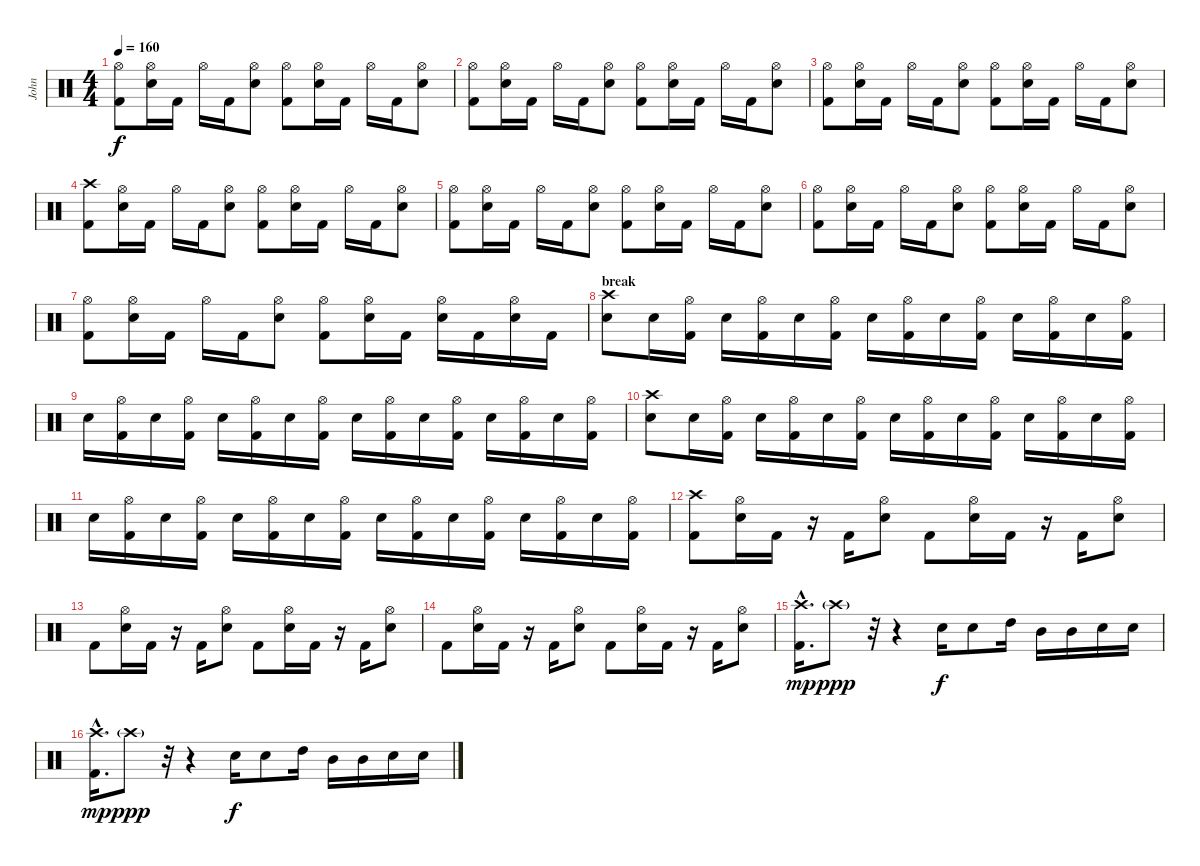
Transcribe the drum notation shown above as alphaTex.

\track ("John" "John") {instrument percussion}
\staff {score}
\articulation defaults
\ts (4 4)
\tempo 160
\clef neutral
\ks c
("Hi-Hat (open)" "Kick (hit) 2").8{dy f} ("Hi-Hat (open)" "Electric Snare (hit)").16 "Kick (hit) 2".16 "Hi-Hat (open)".16 "Kick (hit) 2".16 ("Hi-Hat (open)" "Electric Snare (hit)").8 ("Hi-Hat (open)" "Kick (hit) 2").8 ("Hi-Hat (open)" "Electric Snare (hit)").16 "Kick (hit) 2".16 "Hi-Hat (open)".16 "Kick (hit) 2".16 ("Hi-Hat (open)" "Electric Snare (hit)").8 |
("Hi-Hat (open)" "Kick (hit) 2").8 ("Hi-Hat (open)" "Electric Snare (hit)").16 "Kick (hit) 2".16 "Hi-Hat (open)".16 "Kick (hit) 2".16 ("Hi-Hat (open)" "Electric Snare (hit)").8 ("Hi-Hat (open)" "Kick (hit) 2").8 ("Hi-Hat (open)" "Electric Snare (hit)").16 "Kick (hit) 2".16 "Hi-Hat (open)".16 "Kick (hit) 2".16 ("Hi-Hat (open)" "Electric Snare (hit)").8 |
("Hi-Hat (open)" "Kick (hit) 2").8 ("Hi-Hat (open)" "Electric Snare (hit)").16 "Kick (hit) 2".16 "Hi-Hat (open)".16 "Kick (hit) 2".16 ("Hi-Hat (open)" "Electric Snare (hit)").8 ("Hi-Hat (open)" "Kick (hit) 2").8 ("Hi-Hat (open)" "Electric Snare (hit)").16 "Kick (hit) 2".16 "Hi-Hat (open)".16 "Kick (hit) 2".16 ("Hi-Hat (open)" "Electric Snare (hit)").8 |
("Crash high (hit)" "Kick (hit) 2").8 ("Hi-Hat (open)" "Electric Snare (hit)").16 "Kick (hit) 2".16 "Hi-Hat (open)".16 "Kick (hit) 2".16 ("Hi-Hat (open)" "Electric Snare (hit)").8 ("Hi-Hat (open)" "Kick (hit) 2").8 ("Hi-Hat (open)" "Electric Snare (hit)").16 "Kick (hit) 2".16 "Hi-Hat (open)".16 "Kick (hit) 2".16 ("Hi-Hat (open)" "Electric Snare (hit)").8 |
("Hi-Hat (open)" "Kick (hit) 2").8 ("Hi-Hat (open)" "Electric Snare (hit)").16 "Kick (hit) 2".16 "Hi-Hat (open)".16 "Kick (hit) 2".16 ("Hi-Hat (open)" "Electric Snare (hit)").8 ("Hi-Hat (open)" "Kick (hit) 2").8 ("Hi-Hat (open)" "Electric Snare (hit)").16 "Kick (hit) 2".16 "Hi-Hat (open)".16 "Kick (hit) 2".16 ("Hi-Hat (open)" "Electric Snare (hit)").8 |
("Hi-Hat (open)" "Kick (hit) 2").8 ("Hi-Hat (open)" "Electric Snare (hit)").16 "Kick (hit) 2".16 "Hi-Hat (open)".16 "Kick (hit) 2".16 ("Hi-Hat (open)" "Electric Snare (hit)").8 ("Hi-Hat (open)" "Kick (hit) 2").8 ("Hi-Hat (open)" "Electric Snare (hit)").16 "Kick (hit) 2".16 "Hi-Hat (open)".16 "Kick (hit) 2".16 ("Hi-Hat (open)" "Electric Snare (hit)").8 |
("Hi-Hat (open)" "Kick (hit) 2").8 ("Hi-Hat (open)" "Electric Snare (hit)").16 "Kick (hit) 2".16 "Hi-Hat (open)".16 "Kick (hit) 2".16 ("Hi-Hat (open)" "Electric Snare (hit)").8 ("Hi-Hat (open)" "Kick (hit) 2").8 ("Hi-Hat (open)" "Electric Snare (hit)").16 "Kick (hit) 2".16 ("Hi-Hat (open)" "Electric Snare (hit)").16 "Kick (hit) 2".16 ("Hi-Hat (open)" "Electric Snare (hit)").16 "Kick (hit) 2".16 |
\section ("" "break")
("Crash high (hit)" "Electric Snare (hit)").8 "Electric Snare (hit)".16 ("Hi-Hat (open)" "Kick (hit) 2").16 "Electric Snare (hit)".16 ("Hi-Hat (open)" "Kick (hit) 2").16 "Electric Snare (hit)".16 ("Hi-Hat (open)" "Kick (hit) 2").16 "Electric Snare (hit)".16 ("Hi-Hat (open)" "Kick (hit) 2").16 "Electric Snare (hit)".16 ("Hi-Hat (open)" "Kick (hit) 2").16 "Electric Snare (hit)".16 ("Hi-Hat (open)" "Kick (hit) 2").16 "Electric Snare (hit)".16 ("Hi-Hat (open)" "Kick (hit) 2").16 |
"Electric Snare (hit)".16 ("Hi-Hat (open)" "Kick (hit) 2").16 "Electric Snare (hit)".16 ("Hi-Hat (open)" "Kick (hit) 2").16 "Electric Snare (hit)".16 ("Hi-Hat (open)" "Kick (hit) 2").16 "Electric Snare (hit)".16 ("Hi-Hat (open)" "Kick (hit) 2").16 "Electric Snare (hit)".16 ("Hi-Hat (open)" "Kick (hit) 2").16 "Electric Snare (hit)".16 ("Hi-Hat (open)" "Kick (hit) 2").16 "Electric Snare (hit)".16 ("Hi-Hat (open)" "Kick (hit) 2").16 "Electric Snare (hit)".16 ("Hi-Hat (open)" "Kick (hit) 2").16 |
("Crash high (hit)" "Electric Snare (hit)").8 "Electric Snare (hit)".16 ("Hi-Hat (open)" "Kick (hit) 2").16 "Electric Snare (hit)".16 ("Hi-Hat (open)" "Kick (hit) 2").16 "Electric Snare (hit)".16 ("Hi-Hat (open)" "Kick (hit) 2").16 "Electric Snare (hit)".16 ("Hi-Hat (open)" "Kick (hit) 2").16 "Electric Snare (hit)".16 ("Hi-Hat (open)" "Kick (hit) 2").16 "Electric Snare (hit)".16 ("Hi-Hat (open)" "Kick (hit) 2").16 "Electric Snare (hit)".16 ("Hi-Hat (open)" "Kick (hit) 2").16 |
"Electric Snare (hit)".16 ("Hi-Hat (open)" "Kick (hit) 2").16 "Electric Snare (hit)".16 ("Hi-Hat (open)" "Kick (hit) 2").16 "Electric Snare (hit)".16 ("Hi-Hat (open)" "Kick (hit) 2").16 "Electric Snare (hit)".16 ("Hi-Hat (open)" "Kick (hit) 2").16 "Electric Snare (hit)".16 ("Hi-Hat (open)" "Kick (hit) 2").16 "Electric Snare (hit)".16 ("Hi-Hat (open)" "Kick (hit) 2").16 "Electric Snare (hit)".16 ("Hi-Hat (open)" "Kick (hit) 2").16 "Electric Snare (hit)".16 ("Hi-Hat (open)" "Kick (hit) 2").16 |
("Crash high (hit)" "Kick (hit) 2").8 ("Hi-Hat (open)" "Electric Snare (hit)").16 "Kick (hit) 2".16 r.16 "Kick (hit) 2".16 ("Hi-Hat (open)" "Electric Snare (hit)").8 "Kick (hit) 2".8 ("Hi-Hat (open)" "Electric Snare (hit)").16 "Kick (hit) 2".16 r.16 "Kick (hit) 2".16 ("Hi-Hat (open)" "Electric Snare (hit)").8 |
"Kick (hit) 2".8 ("Hi-Hat (open)" "Electric Snare (hit)").16 "Kick (hit) 2".16 r.16 "Kick (hit) 2".16 ("Hi-Hat (open)" "Electric Snare (hit)").8 "Kick (hit) 2".8 ("Hi-Hat (open)" "Electric Snare (hit)").16 "Kick (hit) 2".16 r.16 "Kick (hit) 2".16 ("Hi-Hat (open)" "Electric Snare (hit)").8 |
"Kick (hit) 2".8 ("Hi-Hat (open)" "Electric Snare (hit)").16 "Kick (hit) 2".16 r.16 "Kick (hit) 2".16 ("Hi-Hat (open)" "Electric Snare (hit)").8 "Kick (hit) 2".8 ("Hi-Hat (open)" "Electric Snare (hit)").16 "Kick (hit) 2".16 r.16 "Kick (hit) 2".16 ("Hi-Hat (open)" "Electric Snare (hit)").8 |
("Crash high (hit)"{hac} "Kick (hit) 2"{hac}).16{d dy mp} "Crash high (hit)"{g}.8{dy ppp} r.32 r.4 "Electric Snare (hit)".16{dy f} "Electric Snare (hit)".8 "High Tom (hit)".16 "Mid Tom (hit)".16 "Mid Tom (hit)".16 "Electric Snare (hit)".16 "Electric Snare (hit)".16 |
("Crash high (hit)"{hac} "Kick (hit) 2"{hac}).16{d dy mp} "Crash high (hit)"{g}.8{dy ppp} r.32 r.4 "Electric Snare (hit)".16{dy f} "Electric Snare (hit)".8 "High Tom (hit)".16 "Mid Tom (hit)".16 "Mid Tom (hit)".16 "Electric Snare (hit)".16 "Electric Snare (hit)".16
